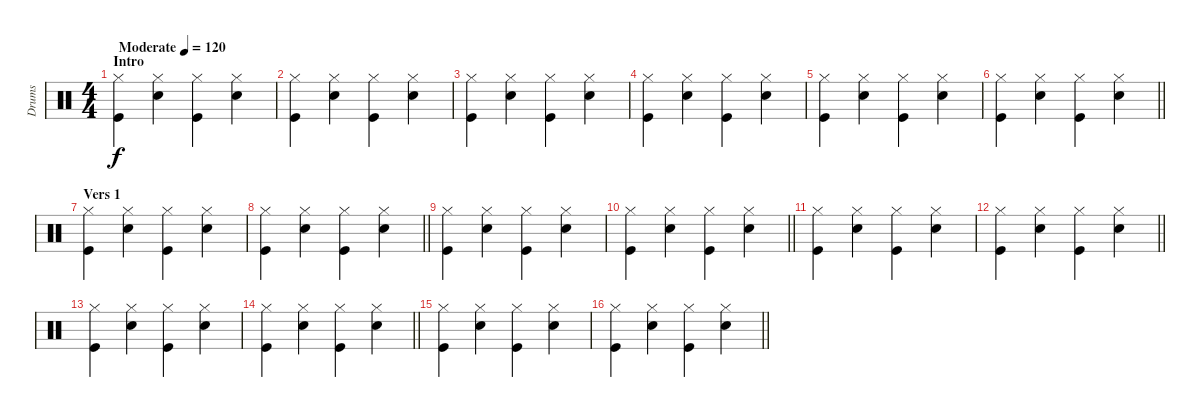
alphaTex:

\track ("Drums" "Drums") {instrument percussion}
\staff {score}
\articulation defaults
\ts (4 4)
\section ("" "Intro")
\tempo (120 "Moderate")
\clef neutral
\ks c
("Hi-Hat (closed)" "Kick (hit)").4{dy f} ("Hi-Hat (closed)" "Snare (hit) 2").4 ("Hi-Hat (closed)" "Kick (hit)").4 ("Hi-Hat (closed)" "Snare (hit) 2").4 |
("Hi-Hat (closed)" "Kick (hit)").4 ("Hi-Hat (closed)" "Snare (hit) 2").4 ("Hi-Hat (closed)" "Kick (hit)").4 ("Hi-Hat (closed)" "Snare (hit) 2").4 |
("Hi-Hat (closed)" "Kick (hit)").4 ("Hi-Hat (closed)" "Snare (hit) 2").4 ("Hi-Hat (closed)" "Kick (hit)").4 ("Hi-Hat (closed)" "Snare (hit) 2").4 |
("Hi-Hat (closed)" "Kick (hit)").4 ("Hi-Hat (closed)" "Snare (hit) 2").4 ("Hi-Hat (closed)" "Kick (hit)").4 ("Hi-Hat (closed)" "Snare (hit) 2").4 |
("Hi-Hat (closed)" "Kick (hit)").4 ("Hi-Hat (closed)" "Snare (hit) 2").4 ("Hi-Hat (closed)" "Kick (hit)").4 ("Hi-Hat (closed)" "Snare (hit) 2").4 |
\barLineRight lightlight
("Hi-Hat (closed)" "Kick (hit)").4 ("Hi-Hat (closed)" "Snare (hit) 2").4 ("Hi-Hat (closed)" "Kick (hit)").4 ("Hi-Hat (closed)" "Snare (hit) 2").4 |
\section ("" "Vers 1")
("Hi-Hat (closed)" "Kick (hit)").4 ("Hi-Hat (closed)" "Snare (hit) 2").4 ("Hi-Hat (closed)" "Kick (hit)").4 ("Hi-Hat (closed)" "Snare (hit) 2").4 |
\barLineRight lightlight
("Hi-Hat (closed)" "Kick (hit)").4 ("Hi-Hat (closed)" "Snare (hit) 2").4 ("Hi-Hat (closed)" "Kick (hit)").4 ("Hi-Hat (closed)" "Snare (hit) 2").4 |
("Hi-Hat (closed)" "Kick (hit)").4 ("Hi-Hat (closed)" "Snare (hit) 2").4 ("Hi-Hat (closed)" "Kick (hit)").4 ("Hi-Hat (closed)" "Snare (hit) 2").4 |
\barLineRight lightlight
("Hi-Hat (closed)" "Kick (hit)").4 ("Hi-Hat (closed)" "Snare (hit) 2").4 ("Hi-Hat (closed)" "Kick (hit)").4 ("Hi-Hat (closed)" "Snare (hit) 2").4 |
("Hi-Hat (closed)" "Kick (hit)").4 ("Hi-Hat (closed)" "Snare (hit) 2").4 ("Hi-Hat (closed)" "Kick (hit)").4 ("Hi-Hat (closed)" "Snare (hit) 2").4 |
\barLineRight lightlight
("Hi-Hat (closed)" "Kick (hit)").4 ("Hi-Hat (closed)" "Snare (hit) 2").4 ("Hi-Hat (closed)" "Kick (hit)").4 ("Hi-Hat (closed)" "Snare (hit) 2").4 |
("Hi-Hat (closed)" "Kick (hit)").4 ("Hi-Hat (closed)" "Snare (hit) 2").4 ("Hi-Hat (closed)" "Kick (hit)").4 ("Hi-Hat (closed)" "Snare (hit) 2").4 |
\barLineRight lightlight
("Hi-Hat (closed)" "Kick (hit)").4 ("Hi-Hat (closed)" "Snare (hit) 2").4 ("Hi-Hat (closed)" "Kick (hit)").4 ("Hi-Hat (closed)" "Snare (hit) 2").4 |
("Hi-Hat (closed)" "Kick (hit)").4 ("Hi-Hat (closed)" "Snare (hit) 2").4 ("Hi-Hat (closed)" "Kick (hit)").4 ("Hi-Hat (closed)" "Snare (hit) 2").4 |
\barLineRight lightlight
("Hi-Hat (closed)" "Kick (hit)").4 ("Hi-Hat (closed)" "Snare (hit) 2").4 ("Hi-Hat (closed)" "Kick (hit)").4 ("Hi-Hat (closed)" "Snare (hit) 2").4
